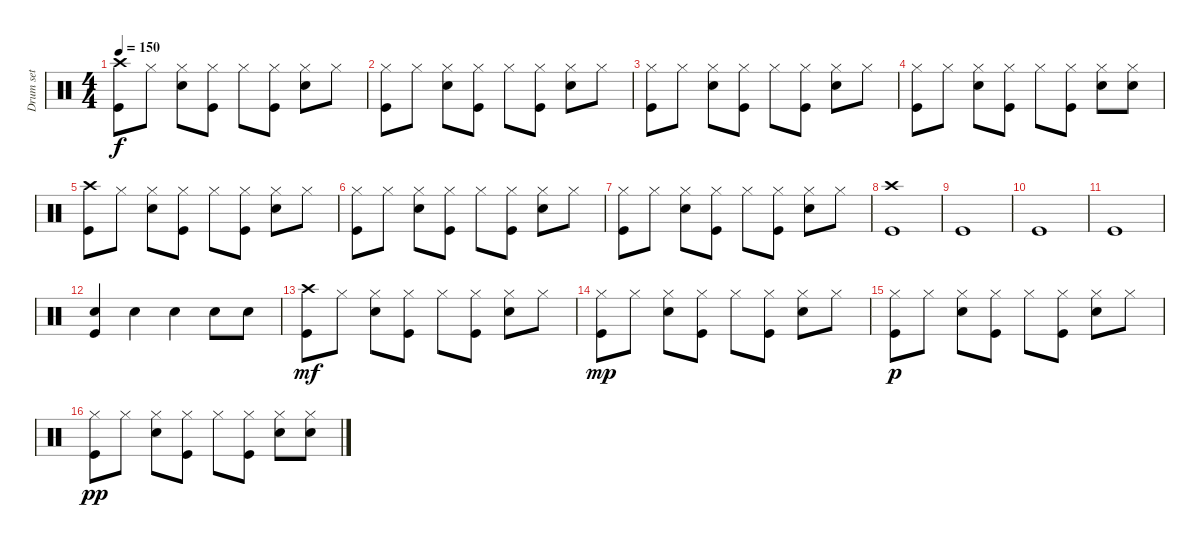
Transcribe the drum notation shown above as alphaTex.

\track ("Drum set" "Drum set") {instrument percussion}
\staff {score}
\articulation defaults
\ts (4 4)
\tempo 150
\clef neutral
\ks c
("Crash high (hit)" "Kick (hit)").8{dy f} "Hi-Hat (closed)".8 ("Hi-Hat (closed)" "Snare (hit) 2").8 ("Hi-Hat (closed)" "Kick (hit)").8 "Hi-Hat (closed)".8 ("Hi-Hat (closed)" "Kick (hit)").8 ("Hi-Hat (closed)" "Snare (hit) 2").8 "Hi-Hat (closed)".8 |
("Hi-Hat (closed)" "Kick (hit)").8 "Hi-Hat (closed)".8 ("Hi-Hat (closed)" "Snare (hit) 2").8 ("Hi-Hat (closed)" "Kick (hit)").8 "Hi-Hat (closed)".8 ("Hi-Hat (closed)" "Kick (hit)").8 ("Hi-Hat (closed)" "Snare (hit) 2").8 "Hi-Hat (closed)".8 |
("Hi-Hat (closed)" "Kick (hit)").8 "Hi-Hat (closed)".8 ("Hi-Hat (closed)" "Snare (hit) 2").8 ("Hi-Hat (closed)" "Kick (hit)").8 "Hi-Hat (closed)".8 ("Hi-Hat (closed)" "Kick (hit)").8 ("Hi-Hat (closed)" "Snare (hit) 2").8 "Hi-Hat (closed)".8 |
("Hi-Hat (closed)" "Kick (hit)").8 "Hi-Hat (closed)".8 ("Hi-Hat (closed)" "Snare (hit) 2").8 ("Hi-Hat (closed)" "Kick (hit)").8 "Hi-Hat (closed)".8 ("Hi-Hat (closed)" "Kick (hit)").8 ("Hi-Hat (closed)" "Snare (hit) 2").8 ("Hi-Hat (closed)" "Snare (hit) 2").8 |
("Crash high (hit)" "Kick (hit)").8 "Hi-Hat (closed)".8 ("Hi-Hat (closed)" "Snare (hit) 2").8 ("Hi-Hat (closed)" "Kick (hit)").8 "Hi-Hat (closed)".8 ("Hi-Hat (closed)" "Kick (hit)").8 ("Hi-Hat (closed)" "Snare (hit) 2").8 "Hi-Hat (closed)".8 |
("Hi-Hat (closed)" "Kick (hit)").8 "Hi-Hat (closed)".8 ("Hi-Hat (closed)" "Snare (hit) 2").8 ("Hi-Hat (closed)" "Kick (hit)").8 "Hi-Hat (closed)".8 ("Hi-Hat (closed)" "Kick (hit)").8 ("Hi-Hat (closed)" "Snare (hit) 2").8 "Hi-Hat (closed)".8 |
("Hi-Hat (closed)" "Kick (hit)").8 "Hi-Hat (closed)".8 ("Hi-Hat (closed)" "Snare (hit) 2").8 ("Hi-Hat (closed)" "Kick (hit)").8 "Hi-Hat (closed)".8 ("Hi-Hat (closed)" "Kick (hit)").8 ("Hi-Hat (closed)" "Snare (hit) 2").8 "Hi-Hat (closed)".8 |
("Crash high (hit)" "Kick (hit)").1 |
"Kick (hit)".1 |
"Kick (hit)".1 |
"Kick (hit)".1 |
("Snare (hit) 2" "Kick (hit)").4 "Snare (hit) 2".4 "Snare (hit) 2".4 "Snare (hit) 2".8 "Snare (hit) 2".8 |
("Crash high (hit)" "Kick (hit)").8{dy mf} "Hi-Hat (closed)".8 ("Hi-Hat (closed)" "Snare (hit) 2").8 ("Hi-Hat (closed)" "Kick (hit)").8 "Hi-Hat (closed)".8 ("Hi-Hat (closed)" "Kick (hit)").8 ("Hi-Hat (closed)" "Snare (hit) 2").8 "Hi-Hat (closed)".8 |
("Hi-Hat (closed)" "Kick (hit)").8{dy mp} "Hi-Hat (closed)".8 ("Hi-Hat (closed)" "Snare (hit) 2").8 ("Hi-Hat (closed)" "Kick (hit)").8 "Hi-Hat (closed)".8 ("Hi-Hat (closed)" "Kick (hit)").8 ("Hi-Hat (closed)" "Snare (hit) 2").8 "Hi-Hat (closed)".8 |
("Hi-Hat (closed)" "Kick (hit)").8{dy p} "Hi-Hat (closed)".8 ("Hi-Hat (closed)" "Snare (hit) 2").8 ("Hi-Hat (closed)" "Kick (hit)").8 "Hi-Hat (closed)".8 ("Hi-Hat (closed)" "Kick (hit)").8 ("Hi-Hat (closed)" "Snare (hit) 2").8 "Hi-Hat (closed)".8 |
("Hi-Hat (closed)" "Kick (hit)").8{dy pp} "Hi-Hat (closed)".8 ("Hi-Hat (closed)" "Snare (hit) 2").8 ("Hi-Hat (closed)" "Kick (hit)").8 "Hi-Hat (closed)".8 ("Hi-Hat (closed)" "Kick (hit)").8 ("Hi-Hat (closed)" "Snare (hit) 2").8 ("Hi-Hat (closed)" "Snare (hit) 2").8
